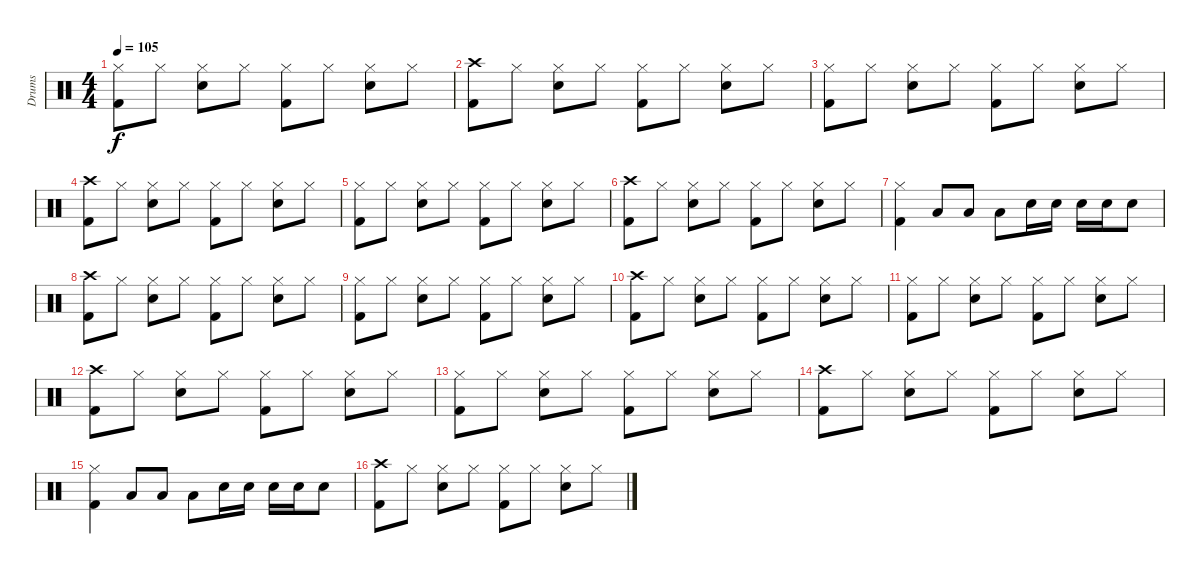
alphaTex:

\track ("Drums" "Drums") {instrument percussion}
\staff {score}
\articulation defaults
\ts (4 4)
\tempo 105
\clef neutral
\ks c
("Kick (hit) 2" "Hi-Hat (closed)").8{dy f} "Hi-Hat (closed)".8 ("Snare (hit) 2" "Hi-Hat (closed)").8 "Hi-Hat (closed)".8 ("Kick (hit) 2" "Hi-Hat (closed)").8 "Hi-Hat (closed)".8 ("Snare (hit) 2" "Hi-Hat (closed)").8 "Hi-Hat (closed)".8 |
("Kick (hit) 2" "Crash high (hit)").8 "Hi-Hat (closed)".8 ("Snare (hit) 2" "Hi-Hat (closed)").8 "Hi-Hat (closed)".8 ("Kick (hit) 2" "Hi-Hat (closed)").8 "Hi-Hat (closed)".8 ("Snare (hit) 2" "Hi-Hat (closed)").8 "Hi-Hat (closed)".8 |
("Kick (hit) 2" "Hi-Hat (closed)").8 "Hi-Hat (closed)".8 ("Snare (hit) 2" "Hi-Hat (closed)").8 "Hi-Hat (closed)".8 ("Kick (hit) 2" "Hi-Hat (closed)").8 "Hi-Hat (closed)".8 ("Snare (hit) 2" "Hi-Hat (closed)").8 "Hi-Hat (closed)".8 |
("Kick (hit) 2" "Crash high (hit)").8 "Hi-Hat (closed)".8 ("Snare (hit) 2" "Hi-Hat (closed)").8 "Hi-Hat (closed)".8 ("Kick (hit) 2" "Hi-Hat (closed)").8 "Hi-Hat (closed)".8 ("Snare (hit) 2" "Hi-Hat (closed)").8 "Hi-Hat (closed)".8 |
("Kick (hit) 2" "Hi-Hat (closed)").8 "Hi-Hat (closed)".8 ("Snare (hit) 2" "Hi-Hat (closed)").8 "Hi-Hat (closed)".8 ("Kick (hit) 2" "Hi-Hat (closed)").8 "Hi-Hat (closed)".8 ("Snare (hit) 2" "Hi-Hat (closed)").8 "Hi-Hat (closed)".8 |
("Kick (hit) 2" "Crash high (hit)").8 "Hi-Hat (closed)".8 ("Snare (hit) 2" "Hi-Hat (closed)").8 "Hi-Hat (closed)".8 ("Kick (hit) 2" "Hi-Hat (closed)").8 "Hi-Hat (closed)".8 ("Snare (hit) 2" "Hi-Hat (closed)").8 "Hi-Hat (closed)".8 |
("Kick (hit) 2" "Hi-Hat (closed)").4 "Low Tom (hit)".8 "Low Tom (hit)".8 "Low Tom (hit)".8 "Snare (hit) 2".16 "Snare (hit) 2".16 "Snare (hit) 2".16 "Snare (hit) 2".16 "Snare (hit) 2".8 |
("Kick (hit) 2" "Crash high (hit)").8 "Hi-Hat (closed)".8 ("Snare (hit) 2" "Hi-Hat (closed)").8 "Hi-Hat (closed)".8 ("Kick (hit) 2" "Hi-Hat (closed)").8 "Hi-Hat (closed)".8 ("Snare (hit) 2" "Hi-Hat (closed)").8 "Hi-Hat (closed)".8 |
("Kick (hit) 2" "Hi-Hat (closed)").8 "Hi-Hat (closed)".8 ("Snare (hit) 2" "Hi-Hat (closed)").8 "Hi-Hat (closed)".8 ("Kick (hit) 2" "Hi-Hat (closed)").8 "Hi-Hat (closed)".8 ("Snare (hit) 2" "Hi-Hat (closed)").8 "Hi-Hat (closed)".8 |
("Kick (hit) 2" "Crash high (hit)").8 "Hi-Hat (closed)".8 ("Snare (hit) 2" "Hi-Hat (closed)").8 "Hi-Hat (closed)".8 ("Kick (hit) 2" "Hi-Hat (closed)").8 "Hi-Hat (closed)".8 ("Snare (hit) 2" "Hi-Hat (closed)").8 "Hi-Hat (closed)".8 |
("Kick (hit) 2" "Hi-Hat (closed)").8 "Hi-Hat (closed)".8 ("Snare (hit) 2" "Hi-Hat (closed)").8 "Hi-Hat (closed)".8 ("Kick (hit) 2" "Hi-Hat (closed)").8 "Hi-Hat (closed)".8 ("Snare (hit) 2" "Hi-Hat (closed)").8 "Hi-Hat (closed)".8 |
("Kick (hit) 2" "Crash high (hit)").8 "Hi-Hat (closed)".8 ("Snare (hit) 2" "Hi-Hat (closed)").8 "Hi-Hat (closed)".8 ("Kick (hit) 2" "Hi-Hat (closed)").8 "Hi-Hat (closed)".8 ("Snare (hit) 2" "Hi-Hat (closed)").8 "Hi-Hat (closed)".8 |
("Kick (hit) 2" "Hi-Hat (closed)").8 "Hi-Hat (closed)".8 ("Snare (hit) 2" "Hi-Hat (closed)").8 "Hi-Hat (closed)".8 ("Kick (hit) 2" "Hi-Hat (closed)").8 "Hi-Hat (closed)".8 ("Snare (hit) 2" "Hi-Hat (closed)").8 "Hi-Hat (closed)".8 |
("Kick (hit) 2" "Crash high (hit)").8 "Hi-Hat (closed)".8 ("Snare (hit) 2" "Hi-Hat (closed)").8 "Hi-Hat (closed)".8 ("Kick (hit) 2" "Hi-Hat (closed)").8 "Hi-Hat (closed)".8 ("Snare (hit) 2" "Hi-Hat (closed)").8 "Hi-Hat (closed)".8 |
("Kick (hit) 2" "Hi-Hat (closed)").4 "Low Tom (hit)".8 "Low Tom (hit)".8 "Low Tom (hit)".8 "Snare (hit) 2".16 "Snare (hit) 2".16 "Snare (hit) 2".16 "Snare (hit) 2".16 "Snare (hit) 2".8 |
("Kick (hit) 2" "Crash high (hit)").8 "Hi-Hat (closed)".8 ("Snare (hit) 2" "Hi-Hat (closed)").8 "Hi-Hat (closed)".8 ("Kick (hit) 2" "Hi-Hat (closed)").8 "Hi-Hat (closed)".8 ("Snare (hit) 2" "Hi-Hat (closed)").8 "Hi-Hat (closed)".8
